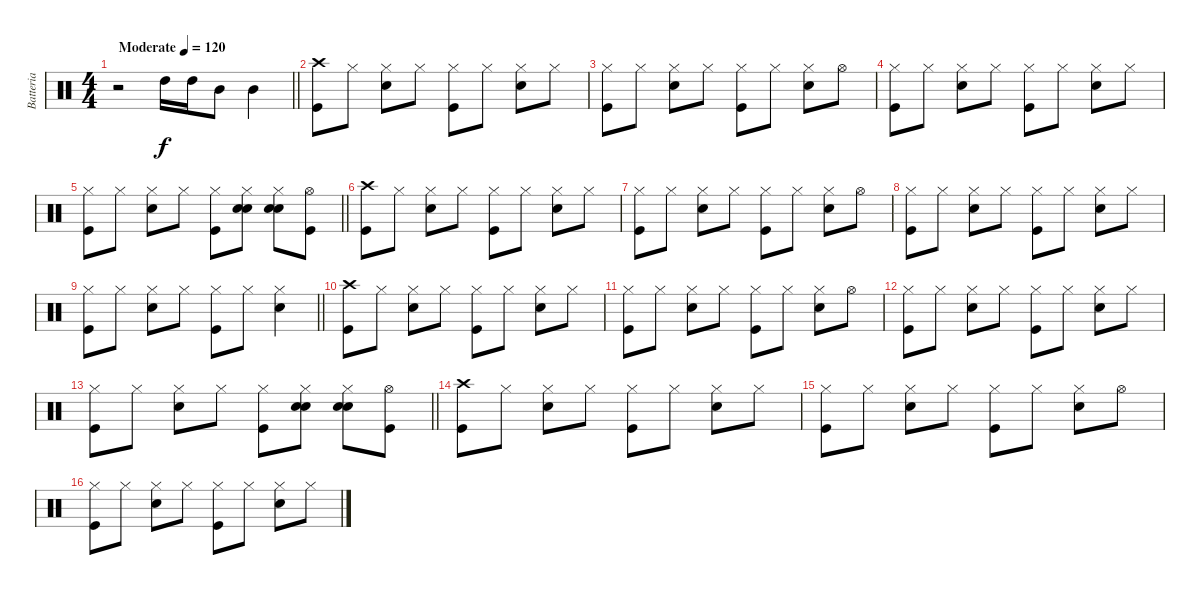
\track ("Batteria" "Batteria") {instrument percussion}
\staff {score}
\articulation defaults
\ts (4 4)
\tempo (120 "Moderate")
\clef neutral
\barLineRight lightlight
\ks c
r.2{dy f} "High Tom (hit)".16 "High Tom (hit)".16 "Mid Tom (hit)".8 "Mid Tom (hit)".4 |
("Kick (hit)" "Crash high (hit)").8 "Hi-Hat (closed)".8 ("Snare (hit) 2" "Hi-Hat (closed)").8 "Hi-Hat (closed)".8 ("Kick (hit)" "Hi-Hat (closed)").8 "Hi-Hat (closed)".8 ("Snare (hit) 2" "Hi-Hat (closed)").8 "Hi-Hat (closed)".8 |
("Kick (hit)" "Hi-Hat (closed)").8 "Hi-Hat (closed)".8 ("Snare (hit) 2" "Hi-Hat (closed)").8 "Hi-Hat (closed)".8 ("Kick (hit)" "Hi-Hat (closed)").8 "Hi-Hat (closed)".8 ("Snare (hit) 2" "Hi-Hat (closed)").8 "Hi-Hat (open)".8 |
("Kick (hit)" "Hi-Hat (closed)").8 "Hi-Hat (closed)".8 ("Snare (hit) 2" "Hi-Hat (closed)").8 "Hi-Hat (closed)".8 ("Kick (hit)" "Hi-Hat (closed)").8 "Hi-Hat (closed)".8 ("Snare (hit) 2" "Hi-Hat (closed)").8 "Hi-Hat (closed)".8 |
\barLineRight lightlight
("Kick (hit)" "Hi-Hat (closed)").8 "Hi-Hat (closed)".8 ("Snare (hit) 2" "Hi-Hat (closed)").8 "Hi-Hat (closed)".8 ("Kick (hit)" "Hi-Hat (closed)").8 ("Hi-Hat (closed)" "Snare (hit) 2" "Hand Clap (hit)").8 ("Snare (hit) 2" "Hi-Hat (closed)" "Hand Clap (hit)").8 ("Hi-Hat (open)" "Kick (hit)").8 |
("Kick (hit)" "Crash high (hit)").8 "Hi-Hat (closed)".8 ("Snare (hit) 2" "Hi-Hat (closed)").8 "Hi-Hat (closed)".8 ("Kick (hit)" "Hi-Hat (closed)").8 "Hi-Hat (closed)".8 ("Snare (hit) 2" "Hi-Hat (closed)").8 "Hi-Hat (closed)".8 |
("Kick (hit)" "Hi-Hat (closed)").8 "Hi-Hat (closed)".8 ("Snare (hit) 2" "Hi-Hat (closed)").8 "Hi-Hat (closed)".8 ("Kick (hit)" "Hi-Hat (closed)").8 "Hi-Hat (closed)".8 ("Snare (hit) 2" "Hi-Hat (closed)").8 "Hi-Hat (open)".8 |
("Kick (hit)" "Hi-Hat (closed)").8 "Hi-Hat (closed)".8 ("Snare (hit) 2" "Hi-Hat (closed)").8 "Hi-Hat (closed)".8 ("Kick (hit)" "Hi-Hat (closed)").8 "Hi-Hat (closed)".8 ("Snare (hit) 2" "Hi-Hat (closed)").8 "Hi-Hat (closed)".8 |
\barLineRight lightlight
("Kick (hit)" "Hi-Hat (closed)").8 "Hi-Hat (closed)".8 ("Snare (hit) 2" "Hi-Hat (closed)").8 "Hi-Hat (closed)".8 ("Kick (hit)" "Hi-Hat (closed)").8 "Hi-Hat (closed)".8 ("Snare (hit) 2" "Hi-Hat (closed)").4 |
("Kick (hit)" "Crash high (hit)").8 "Hi-Hat (closed)".8 ("Snare (hit) 2" "Hi-Hat (closed)").8 "Hi-Hat (closed)".8 ("Kick (hit)" "Hi-Hat (closed)").8 "Hi-Hat (closed)".8 ("Snare (hit) 2" "Hi-Hat (closed)").8 "Hi-Hat (closed)".8 |
("Kick (hit)" "Hi-Hat (closed)").8 "Hi-Hat (closed)".8 ("Snare (hit) 2" "Hi-Hat (closed)").8 "Hi-Hat (closed)".8 ("Kick (hit)" "Hi-Hat (closed)").8 "Hi-Hat (closed)".8 ("Snare (hit) 2" "Hi-Hat (closed)").8 "Hi-Hat (open)".8 |
("Kick (hit)" "Hi-Hat (closed)").8 "Hi-Hat (closed)".8 ("Snare (hit) 2" "Hi-Hat (closed)").8 "Hi-Hat (closed)".8 ("Kick (hit)" "Hi-Hat (closed)").8 "Hi-Hat (closed)".8 ("Snare (hit) 2" "Hi-Hat (closed)").8 "Hi-Hat (closed)".8 |
\barLineRight lightlight
("Kick (hit)" "Hi-Hat (closed)").8 "Hi-Hat (closed)".8 ("Snare (hit) 2" "Hi-Hat (closed)").8 "Hi-Hat (closed)".8 ("Kick (hit)" "Hi-Hat (closed)").8 ("Hi-Hat (closed)" "Snare (hit) 2" "Hand Clap (hit)").8 ("Snare (hit) 2" "Hi-Hat (closed)" "Hand Clap (hit)").8 ("Hi-Hat (open)" "Kick (hit)").8 |
("Kick (hit)" "Crash high (hit)").8 "Hi-Hat (closed)".8 ("Snare (hit) 2" "Hi-Hat (closed)").8 "Hi-Hat (closed)".8 ("Kick (hit)" "Hi-Hat (closed)").8 "Hi-Hat (closed)".8 ("Snare (hit) 2" "Hi-Hat (closed)").8 "Hi-Hat (closed)".8 |
("Kick (hit)" "Hi-Hat (closed)").8 "Hi-Hat (closed)".8 ("Snare (hit) 2" "Hi-Hat (closed)").8 "Hi-Hat (closed)".8 ("Kick (hit)" "Hi-Hat (closed)").8 "Hi-Hat (closed)".8 ("Snare (hit) 2" "Hi-Hat (closed)").8 "Hi-Hat (open)".8 |
("Kick (hit)" "Hi-Hat (closed)").8 "Hi-Hat (closed)".8 ("Snare (hit) 2" "Hi-Hat (closed)").8 "Hi-Hat (closed)".8 ("Kick (hit)" "Hi-Hat (closed)").8 "Hi-Hat (closed)".8 ("Snare (hit) 2" "Hi-Hat (closed)").8 "Hi-Hat (closed)".8
